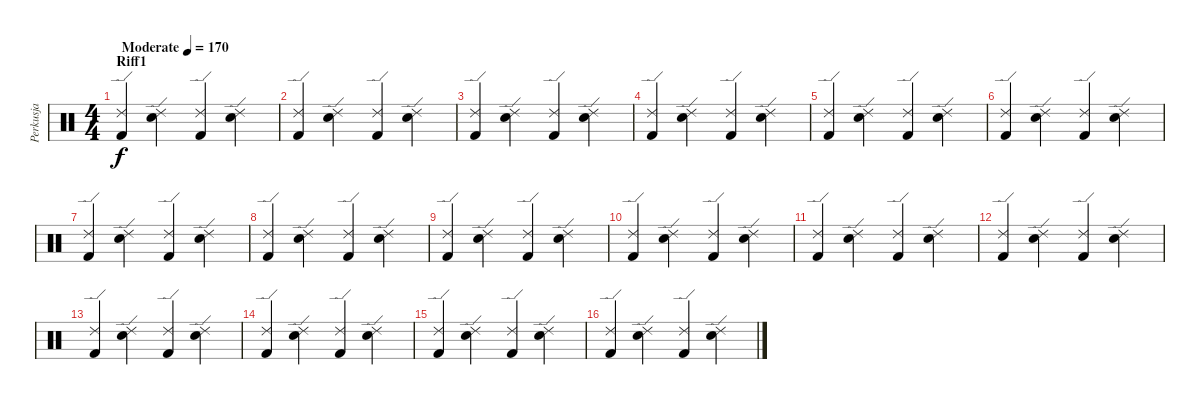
\track ("Perkusja" "Perkusja") {instrument percussion}
\staff {score}
\articulation defaults
\ts (4 4)
\section ("" "Riff1")
\tempo (170 "Moderate")
\clef neutral
\ks c
("Ride (edge) 2" "Kick (hit) 2").4{dy f} ("Ride (edge) 2" "Electric Snare (hit)").4 ("Ride (edge) 2" "Kick (hit) 2").4 ("Ride (edge) 2" "Electric Snare (hit)").4 |
("Ride (edge) 2" "Kick (hit) 2").4 ("Ride (edge) 2" "Electric Snare (hit)").4 ("Ride (edge) 2" "Kick (hit) 2").4 ("Ride (edge) 2" "Electric Snare (hit)").4 |
("Ride (edge) 2" "Kick (hit) 2").4 ("Ride (edge) 2" "Electric Snare (hit)").4 ("Ride (edge) 2" "Kick (hit) 2").4 ("Ride (edge) 2" "Electric Snare (hit)").4 |
("Ride (edge) 2" "Kick (hit) 2").4 ("Ride (edge) 2" "Electric Snare (hit)").4 ("Ride (edge) 2" "Kick (hit) 2").4 ("Ride (edge) 2" "Electric Snare (hit)").4 |
("Ride (edge) 2" "Kick (hit) 2").4 ("Ride (edge) 2" "Electric Snare (hit)").4 ("Ride (edge) 2" "Kick (hit) 2").4 ("Ride (edge) 2" "Electric Snare (hit)").4 |
("Ride (edge) 2" "Kick (hit) 2").4 ("Ride (edge) 2" "Electric Snare (hit)").4 ("Ride (edge) 2" "Kick (hit) 2").4 ("Ride (edge) 2" "Electric Snare (hit)").4 |
("Ride (edge) 2" "Kick (hit) 2").4 ("Ride (edge) 2" "Electric Snare (hit)").4 ("Ride (edge) 2" "Kick (hit) 2").4 ("Ride (edge) 2" "Electric Snare (hit)").4 |
("Ride (edge) 2" "Kick (hit) 2").4 ("Ride (edge) 2" "Electric Snare (hit)").4 ("Ride (edge) 2" "Kick (hit) 2").4 ("Ride (edge) 2" "Electric Snare (hit)").4 |
("Ride (edge) 2" "Kick (hit) 2").4 ("Ride (edge) 2" "Electric Snare (hit)").4 ("Ride (edge) 2" "Kick (hit) 2").4 ("Ride (edge) 2" "Electric Snare (hit)").4 |
("Ride (edge) 2" "Kick (hit) 2").4 ("Ride (edge) 2" "Electric Snare (hit)").4 ("Ride (edge) 2" "Kick (hit) 2").4 ("Ride (edge) 2" "Electric Snare (hit)").4 |
("Ride (edge) 2" "Kick (hit) 2").4 ("Ride (edge) 2" "Electric Snare (hit)").4 ("Ride (edge) 2" "Kick (hit) 2").4 ("Ride (edge) 2" "Electric Snare (hit)").4 |
("Ride (edge) 2" "Kick (hit) 2").4 ("Ride (edge) 2" "Electric Snare (hit)").4 ("Ride (edge) 2" "Kick (hit) 2").4 ("Ride (edge) 2" "Electric Snare (hit)").4 |
("Ride (edge) 2" "Kick (hit) 2").4 ("Ride (edge) 2" "Electric Snare (hit)").4 ("Ride (edge) 2" "Kick (hit) 2").4 ("Ride (edge) 2" "Electric Snare (hit)").4 |
("Ride (edge) 2" "Kick (hit) 2").4 ("Ride (edge) 2" "Electric Snare (hit)").4 ("Ride (edge) 2" "Kick (hit) 2").4 ("Ride (edge) 2" "Electric Snare (hit)").4 |
("Ride (edge) 2" "Kick (hit) 2").4 ("Ride (edge) 2" "Electric Snare (hit)").4 ("Ride (edge) 2" "Kick (hit) 2").4 ("Ride (edge) 2" "Electric Snare (hit)").4 |
("Ride (edge) 2" "Kick (hit) 2").4 ("Ride (edge) 2" "Electric Snare (hit)").4 ("Ride (edge) 2" "Kick (hit) 2").4 ("Ride (edge) 2" "Electric Snare (hit)").4
